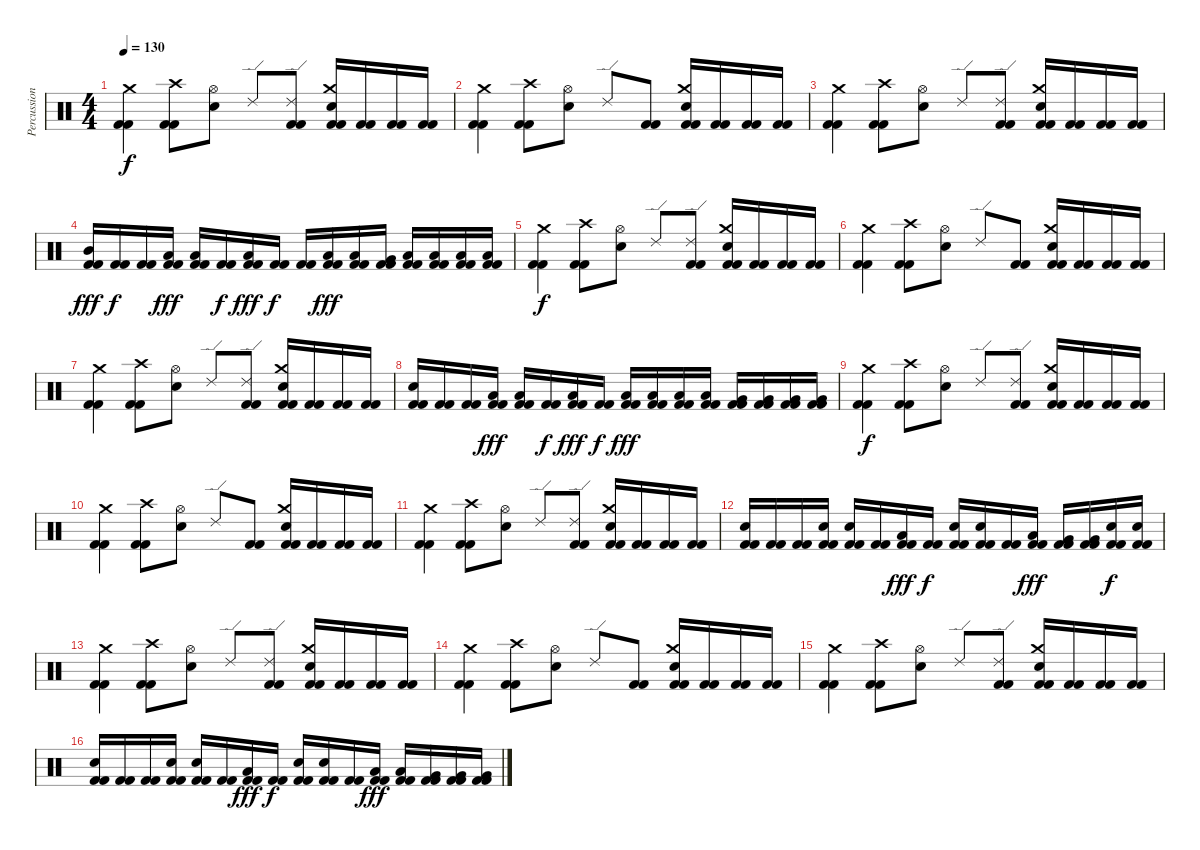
\track ("Percussion" "Percussion") {instrument percussion}
\staff {score}
\articulation defaults
\ts (4 4)
\tempo 130
\clef neutral
\ks c
("Kick (hit) 2" "Kick (hit) 2" "Crash medium (hit)").4{dy f} ("Kick (hit) 2" "Kick (hit) 2" "Crash high (hit)").8 ("Hi-Hat (open)" "Electric Snare (hit)").8 "Ride (edge) 2".8 ("Kick (hit) 2" "Kick (hit) 2" "Ride (edge) 2").8 ("Kick (hit) 2" "Kick (hit) 2" "Electric Snare (hit)" "Crash medium (hit)").16 ("Kick (hit) 2" "Kick (hit) 2").16 ("Kick (hit) 2" "Kick (hit) 2").16 ("Kick (hit) 2" "Kick (hit) 2").16 |
("Kick (hit) 2" "Kick (hit) 2" "Crash medium (hit)").4 ("Kick (hit) 2" "Kick (hit) 2" "Crash high (hit)").8 ("Hi-Hat (open)" "Electric Snare (hit)").8 "Ride (edge) 2".8 ("Kick (hit) 2" "Kick (hit) 2").8 ("Kick (hit) 2" "Kick (hit) 2" "Electric Snare (hit)" "Crash medium (hit)").16 ("Kick (hit) 2" "Kick (hit) 2").16 ("Kick (hit) 2" "Kick (hit) 2").16 ("Kick (hit) 2" "Kick (hit) 2").16 |
("Kick (hit) 2" "Kick (hit) 2" "Crash medium (hit)").4 ("Kick (hit) 2" "Kick (hit) 2" "Crash high (hit)").8 ("Hi-Hat (open)" "Electric Snare (hit)").8 "Ride (edge) 2".8 ("Kick (hit) 2" "Kick (hit) 2" "Ride (edge) 2").8 ("Kick (hit) 2" "Kick (hit) 2" "Electric Snare (hit)" "Crash medium (hit)").16 ("Kick (hit) 2" "Kick (hit) 2").16 ("Kick (hit) 2" "Kick (hit) 2").16 ("Kick (hit) 2" "Kick (hit) 2").16 |
("Kick (hit) 2" "Kick (hit) 2" "Mid Tom (hit)").16{dy fff} ("Kick (hit) 2" "Kick (hit) 2").16{dy f} ("Kick (hit) 2" "Kick (hit) 2").16 ("Kick (hit) 2" "Kick (hit) 2" "Low Tom (hit)").16{dy fff} ("Kick (hit) 2" "Kick (hit) 2" "Low Tom (hit)").16 ("Kick (hit) 2" "Kick (hit) 2").16{dy f} ("Kick (hit) 2" "Kick (hit) 2" "Low Tom (hit)").16{dy fff} ("Kick (hit) 2" "Kick (hit) 2").16{dy f} ("Kick (hit) 2" "Kick (hit) 2").16 ("Kick (hit) 2" "Kick (hit) 2" "Low Tom (hit)").16{dy fff} ("Kick (hit) 2" "Kick (hit) 2" "Low Tom (hit)").16 ("Kick (hit) 2" "Kick (hit) 2" "Very Low Tom (hit)").16 ("Kick (hit) 2" "Kick (hit) 2" "Low Tom (hit)").16 ("Kick (hit) 2" "Kick (hit) 2" "Low Tom (hit)").16 ("Kick (hit) 2" "Kick (hit) 2" "Low Tom (hit)").16 ("Kick (hit) 2" "Kick (hit) 2" "Low Tom (hit)").16 |
("Kick (hit) 2" "Kick (hit) 2" "Crash medium (hit)").4{dy f} ("Kick (hit) 2" "Kick (hit) 2" "Crash high (hit)").8 ("Hi-Hat (open)" "Electric Snare (hit)").8 "Ride (edge) 2".8 ("Kick (hit) 2" "Kick (hit) 2" "Ride (edge) 2").8 ("Kick (hit) 2" "Kick (hit) 2" "Electric Snare (hit)" "Crash medium (hit)").16 ("Kick (hit) 2" "Kick (hit) 2").16 ("Kick (hit) 2" "Kick (hit) 2").16 ("Kick (hit) 2" "Kick (hit) 2").16 |
("Kick (hit) 2" "Kick (hit) 2" "Crash medium (hit)").4 ("Kick (hit) 2" "Kick (hit) 2" "Crash high (hit)").8 ("Hi-Hat (open)" "Electric Snare (hit)").8 "Ride (edge) 2".8 ("Kick (hit) 2" "Kick (hit) 2").8 ("Kick (hit) 2" "Kick (hit) 2" "Electric Snare (hit)" "Crash medium (hit)").16 ("Kick (hit) 2" "Kick (hit) 2").16 ("Kick (hit) 2" "Kick (hit) 2").16 ("Kick (hit) 2" "Kick (hit) 2").16 |
("Kick (hit) 2" "Kick (hit) 2" "Crash medium (hit)").4 ("Kick (hit) 2" "Kick (hit) 2" "Crash high (hit)").8 ("Hi-Hat (open)" "Electric Snare (hit)").8 "Ride (edge) 2".8 ("Kick (hit) 2" "Kick (hit) 2" "Ride (edge) 2").8 ("Kick (hit) 2" "Kick (hit) 2" "Electric Snare (hit)" "Crash medium (hit)").16 ("Kick (hit) 2" "Kick (hit) 2").16 ("Kick (hit) 2" "Kick (hit) 2").16 ("Kick (hit) 2" "Kick (hit) 2").16 |
("Kick (hit) 2" "Kick (hit) 2" "Electric Snare (hit)").16 ("Kick (hit) 2" "Kick (hit) 2").16 ("Kick (hit) 2" "Kick (hit) 2").16 ("Kick (hit) 2" "Kick (hit) 2" "Low Tom (hit)").16{dy fff} ("Kick (hit) 2" "Kick (hit) 2" "Low Tom (hit)").16 ("Kick (hit) 2" "Kick (hit) 2").16{dy f} ("Kick (hit) 2" "Kick (hit) 2" "Low Tom (hit)").16{dy fff} ("Kick (hit) 2" "Kick (hit) 2").16{dy f} ("Kick (hit) 2" "Kick (hit) 2" "Low Tom (hit)").16{dy fff} ("Kick (hit) 2" "Kick (hit) 2" "Low Tom (hit)").16 ("Kick (hit) 2" "Kick (hit) 2" "Low Tom (hit)").16 ("Kick (hit) 2" "Kick (hit) 2" "Low Tom (hit)").16 ("Kick (hit) 2" "Kick (hit) 2" "Very Low Tom (hit)").16 ("Kick (hit) 2" "Kick (hit) 2" "Very Low Tom (hit)").16 ("Kick (hit) 2" "Kick (hit) 2" "Very Low Tom (hit)").16 ("Kick (hit) 2" "Kick (hit) 2" "Very Low Tom (hit)").16 |
("Kick (hit) 2" "Kick (hit) 2" "Crash medium (hit)").4{dy f} ("Kick (hit) 2" "Kick (hit) 2" "Crash high (hit)").8 ("Hi-Hat (open)" "Electric Snare (hit)").8 "Ride (edge) 2".8 ("Kick (hit) 2" "Kick (hit) 2" "Ride (edge) 2").8 ("Kick (hit) 2" "Kick (hit) 2" "Electric Snare (hit)" "Crash medium (hit)").16 ("Kick (hit) 2" "Kick (hit) 2").16 ("Kick (hit) 2" "Kick (hit) 2").16 ("Kick (hit) 2" "Kick (hit) 2").16 |
("Kick (hit) 2" "Kick (hit) 2" "Crash medium (hit)").4 ("Kick (hit) 2" "Kick (hit) 2" "Crash high (hit)").8 ("Hi-Hat (open)" "Electric Snare (hit)").8 "Ride (edge) 2".8 ("Kick (hit) 2" "Kick (hit) 2").8 ("Kick (hit) 2" "Kick (hit) 2" "Electric Snare (hit)" "Crash medium (hit)").16 ("Kick (hit) 2" "Kick (hit) 2").16 ("Kick (hit) 2" "Kick (hit) 2").16 ("Kick (hit) 2" "Kick (hit) 2").16 |
("Kick (hit) 2" "Kick (hit) 2" "Crash medium (hit)").4 ("Kick (hit) 2" "Kick (hit) 2" "Crash high (hit)").8 ("Hi-Hat (open)" "Electric Snare (hit)").8 "Ride (edge) 2".8 ("Kick (hit) 2" "Kick (hit) 2" "Ride (edge) 2").8 ("Kick (hit) 2" "Kick (hit) 2" "Electric Snare (hit)" "Crash medium (hit)").16 ("Kick (hit) 2" "Kick (hit) 2").16 ("Kick (hit) 2" "Kick (hit) 2").16 ("Kick (hit) 2" "Kick (hit) 2").16 |
("Kick (hit) 2" "Kick (hit) 2" "Electric Snare (hit)").16 ("Kick (hit) 2" "Kick (hit) 2").16 ("Kick (hit) 2" "Kick (hit) 2").16 ("Kick (hit) 2" "Kick (hit) 2" "Electric Snare (hit)").16 ("Kick (hit) 2" "Kick (hit) 2" "Electric Snare (hit)").16 ("Kick (hit) 2" "Kick (hit) 2").16 ("Kick (hit) 2" "Kick (hit) 2" "Low Tom (hit)").16{dy fff} ("Kick (hit) 2" "Kick (hit) 2").16{dy f} ("Kick (hit) 2" "Kick (hit) 2" "Electric Snare (hit)").16 ("Kick (hit) 2" "Kick (hit) 2" "Electric Snare (hit)").16 ("Kick (hit) 2" "Kick (hit) 2").16 ("Kick (hit) 2" "Kick (hit) 2" "Low Tom (hit)").16{dy fff} ("Kick (hit) 2" "Kick (hit) 2" "Very Low Tom (hit)").16 ("Kick (hit) 2" "Kick (hit) 2" "Very Low Tom (hit)").16 ("Kick (hit) 2" "Kick (hit) 2" "Electric Snare (hit)").16{dy f} ("Kick (hit) 2" "Kick (hit) 2" "Electric Snare (hit)").16 |
("Kick (hit) 2" "Kick (hit) 2" "Crash medium (hit)").4 ("Kick (hit) 2" "Kick (hit) 2" "Crash high (hit)").8 ("Hi-Hat (open)" "Electric Snare (hit)").8 "Ride (edge) 2".8 ("Kick (hit) 2" "Kick (hit) 2" "Ride (edge) 2").8 ("Kick (hit) 2" "Kick (hit) 2" "Electric Snare (hit)" "Crash medium (hit)").16 ("Kick (hit) 2" "Kick (hit) 2").16 ("Kick (hit) 2" "Kick (hit) 2").16 ("Kick (hit) 2" "Kick (hit) 2").16 |
("Kick (hit) 2" "Kick (hit) 2" "Crash medium (hit)").4 ("Kick (hit) 2" "Kick (hit) 2" "Crash high (hit)").8 ("Hi-Hat (open)" "Electric Snare (hit)").8 "Ride (edge) 2".8 ("Kick (hit) 2" "Kick (hit) 2").8 ("Kick (hit) 2" "Kick (hit) 2" "Electric Snare (hit)" "Crash medium (hit)").16 ("Kick (hit) 2" "Kick (hit) 2").16 ("Kick (hit) 2" "Kick (hit) 2").16 ("Kick (hit) 2" "Kick (hit) 2").16 |
("Kick (hit) 2" "Kick (hit) 2" "Crash medium (hit)").4 ("Kick (hit) 2" "Kick (hit) 2" "Crash high (hit)").8 ("Hi-Hat (open)" "Electric Snare (hit)").8 "Ride (edge) 2".8 ("Kick (hit) 2" "Kick (hit) 2" "Ride (edge) 2").8 ("Kick (hit) 2" "Kick (hit) 2" "Electric Snare (hit)" "Crash medium (hit)").16 ("Kick (hit) 2" "Kick (hit) 2").16 ("Kick (hit) 2" "Kick (hit) 2").16 ("Kick (hit) 2" "Kick (hit) 2").16 |
("Kick (hit) 2" "Kick (hit) 2" "Electric Snare (hit)").16 ("Kick (hit) 2" "Kick (hit) 2").16 ("Kick (hit) 2" "Kick (hit) 2").16 ("Kick (hit) 2" "Kick (hit) 2" "Electric Snare (hit)").16 ("Kick (hit) 2" "Kick (hit) 2" "Electric Snare (hit)").16 ("Kick (hit) 2" "Kick (hit) 2").16 ("Kick (hit) 2" "Kick (hit) 2" "Low Tom (hit)").16{dy fff} ("Kick (hit) 2" "Kick (hit) 2").16{dy f} ("Kick (hit) 2" "Kick (hit) 2" "Electric Snare (hit)").16 ("Kick (hit) 2" "Kick (hit) 2" "Electric Snare (hit)").16 ("Kick (hit) 2" "Kick (hit) 2").16 ("Kick (hit) 2" "Kick (hit) 2" "Low Tom (hit)").16{dy fff} ("Kick (hit) 2" "Kick (hit) 2" "Low Tom (hit)").16 ("Kick (hit) 2" "Kick (hit) 2" "Very Low Tom (hit)").16 ("Kick (hit) 2" "Kick (hit) 2" "Very Low Tom (hit)").16 ("Kick (hit) 2" "Kick (hit) 2" "Very Low Tom (hit)").16
